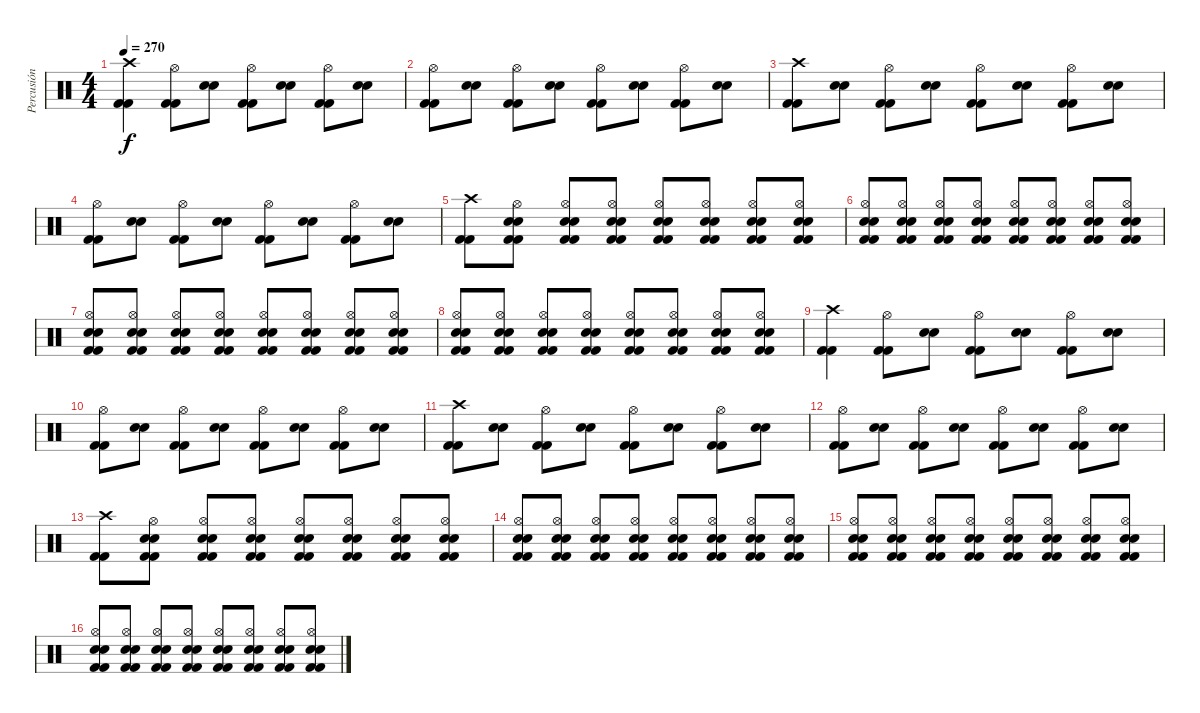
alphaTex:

\track ("Percusión" "Percusión") {instrument percussion}
\staff {score}
\articulation defaults
\ts (4 4)
\tempo 270
\clef neutral
\ks c
("Kick (hit) 2" "Kick (hit) 2" "Crash high (hit)").4{dy f} ("Kick (hit) 2" "Kick (hit) 2" "Hi-Hat (open)").8 ("Electric Snare (hit)" "Electric Snare (hit)").8 ("Kick (hit) 2" "Kick (hit) 2" "Hi-Hat (open)").8 ("Electric Snare (hit)" "Electric Snare (hit)").8 ("Kick (hit) 2" "Kick (hit) 2" "Hi-Hat (open)").8 ("Electric Snare (hit)" "Electric Snare (hit)").8 |
("Kick (hit) 2" "Kick (hit) 2" "Hi-Hat (open)").8 ("Electric Snare (hit)" "Electric Snare (hit)").8 ("Kick (hit) 2" "Kick (hit) 2" "Hi-Hat (open)").8 ("Electric Snare (hit)" "Electric Snare (hit)").8 ("Kick (hit) 2" "Kick (hit) 2" "Hi-Hat (open)").8 ("Electric Snare (hit)" "Electric Snare (hit)").8 ("Kick (hit) 2" "Kick (hit) 2" "Hi-Hat (open)").8 ("Electric Snare (hit)" "Electric Snare (hit)").8 |
("Kick (hit) 2" "Kick (hit) 2" "Crash high (hit)").8 ("Electric Snare (hit)" "Electric Snare (hit)").8 ("Kick (hit) 2" "Kick (hit) 2" "Hi-Hat (open)").8 ("Electric Snare (hit)" "Electric Snare (hit)").8 ("Kick (hit) 2" "Kick (hit) 2" "Hi-Hat (open)").8 ("Electric Snare (hit)" "Electric Snare (hit)").8 ("Kick (hit) 2" "Kick (hit) 2" "Hi-Hat (open)").8 ("Electric Snare (hit)" "Electric Snare (hit)").8 |
("Kick (hit) 2" "Kick (hit) 2" "Hi-Hat (open)").8 ("Electric Snare (hit)" "Electric Snare (hit)").8 ("Kick (hit) 2" "Kick (hit) 2" "Hi-Hat (open)").8 ("Electric Snare (hit)" "Electric Snare (hit)").8 ("Kick (hit) 2" "Kick (hit) 2" "Hi-Hat (open)").8 ("Electric Snare (hit)" "Electric Snare (hit)").8 ("Kick (hit) 2" "Kick (hit) 2" "Hi-Hat (open)").8 ("Electric Snare (hit)" "Electric Snare (hit)").8 |
("Kick (hit) 2" "Kick (hit) 2" "Crash high (hit)").8 ("Kick (hit) 2" "Kick (hit) 2" "Electric Snare (hit)" "Electric Snare (hit)" "Hi-Hat (open)").8 ("Kick (hit) 2" "Kick (hit) 2" "Electric Snare (hit)" "Electric Snare (hit)" "Hi-Hat (open)").8 ("Kick (hit) 2" "Kick (hit) 2" "Electric Snare (hit)" "Electric Snare (hit)" "Hi-Hat (open)").8 ("Kick (hit) 2" "Kick (hit) 2" "Electric Snare (hit)" "Electric Snare (hit)" "Hi-Hat (open)").8 ("Kick (hit) 2" "Kick (hit) 2" "Electric Snare (hit)" "Electric Snare (hit)" "Hi-Hat (open)").8 ("Kick (hit) 2" "Kick (hit) 2" "Electric Snare (hit)" "Electric Snare (hit)" "Hi-Hat (open)").8 ("Kick (hit) 2" "Kick (hit) 2" "Electric Snare (hit)" "Electric Snare (hit)" "Hi-Hat (open)").8 |
("Kick (hit) 2" "Kick (hit) 2" "Electric Snare (hit)" "Electric Snare (hit)" "Hi-Hat (open)").8 ("Kick (hit) 2" "Kick (hit) 2" "Electric Snare (hit)" "Electric Snare (hit)" "Hi-Hat (open)").8 ("Kick (hit) 2" "Kick (hit) 2" "Electric Snare (hit)" "Electric Snare (hit)" "Hi-Hat (open)").8 ("Kick (hit) 2" "Kick (hit) 2" "Electric Snare (hit)" "Electric Snare (hit)" "Hi-Hat (open)").8 ("Kick (hit) 2" "Kick (hit) 2" "Electric Snare (hit)" "Electric Snare (hit)" "Hi-Hat (open)").8 ("Kick (hit) 2" "Kick (hit) 2" "Electric Snare (hit)" "Electric Snare (hit)" "Hi-Hat (open)").8 ("Kick (hit) 2" "Kick (hit) 2" "Electric Snare (hit)" "Electric Snare (hit)" "Hi-Hat (open)").8 ("Kick (hit) 2" "Kick (hit) 2" "Electric Snare (hit)" "Electric Snare (hit)" "Hi-Hat (open)").8 |
("Kick (hit) 2" "Kick (hit) 2" "Electric Snare (hit)" "Electric Snare (hit)" "Hi-Hat (open)").8 ("Kick (hit) 2" "Kick (hit) 2" "Electric Snare (hit)" "Electric Snare (hit)" "Hi-Hat (open)").8 ("Kick (hit) 2" "Kick (hit) 2" "Electric Snare (hit)" "Electric Snare (hit)" "Hi-Hat (open)").8 ("Kick (hit) 2" "Kick (hit) 2" "Electric Snare (hit)" "Electric Snare (hit)" "Hi-Hat (open)").8 ("Kick (hit) 2" "Kick (hit) 2" "Electric Snare (hit)" "Electric Snare (hit)" "Hi-Hat (open)").8 ("Kick (hit) 2" "Kick (hit) 2" "Electric Snare (hit)" "Electric Snare (hit)" "Hi-Hat (open)").8 ("Kick (hit) 2" "Kick (hit) 2" "Electric Snare (hit)" "Electric Snare (hit)" "Hi-Hat (open)").8 ("Kick (hit) 2" "Kick (hit) 2" "Electric Snare (hit)" "Electric Snare (hit)" "Hi-Hat (open)").8 |
("Kick (hit) 2" "Kick (hit) 2" "Electric Snare (hit)" "Electric Snare (hit)" "Hi-Hat (open)").8 ("Kick (hit) 2" "Kick (hit) 2" "Electric Snare (hit)" "Electric Snare (hit)" "Hi-Hat (open)").8 ("Kick (hit) 2" "Kick (hit) 2" "Electric Snare (hit)" "Electric Snare (hit)" "Hi-Hat (open)").8 ("Kick (hit) 2" "Kick (hit) 2" "Electric Snare (hit)" "Electric Snare (hit)" "Hi-Hat (open)").8 ("Kick (hit) 2" "Kick (hit) 2" "Electric Snare (hit)" "Electric Snare (hit)" "Hi-Hat (open)").8 ("Kick (hit) 2" "Kick (hit) 2" "Electric Snare (hit)" "Electric Snare (hit)" "Hi-Hat (open)").8 ("Kick (hit) 2" "Kick (hit) 2" "Electric Snare (hit)" "Electric Snare (hit)" "Hi-Hat (open)").8 ("Kick (hit) 2" "Kick (hit) 2" "Electric Snare (hit)" "Electric Snare (hit)" "Hi-Hat (open)").8 |
("Kick (hit) 2" "Kick (hit) 2" "Crash high (hit)").4 ("Kick (hit) 2" "Kick (hit) 2" "Hi-Hat (open)").8 ("Electric Snare (hit)" "Electric Snare (hit)").8 ("Kick (hit) 2" "Kick (hit) 2" "Hi-Hat (open)").8 ("Electric Snare (hit)" "Electric Snare (hit)").8 ("Kick (hit) 2" "Kick (hit) 2" "Hi-Hat (open)").8 ("Electric Snare (hit)" "Electric Snare (hit)").8 |
("Kick (hit) 2" "Kick (hit) 2" "Hi-Hat (open)").8 ("Electric Snare (hit)" "Electric Snare (hit)").8 ("Kick (hit) 2" "Kick (hit) 2" "Hi-Hat (open)").8 ("Electric Snare (hit)" "Electric Snare (hit)").8 ("Kick (hit) 2" "Kick (hit) 2" "Hi-Hat (open)").8 ("Electric Snare (hit)" "Electric Snare (hit)").8 ("Kick (hit) 2" "Kick (hit) 2" "Hi-Hat (open)").8 ("Electric Snare (hit)" "Electric Snare (hit)").8 |
("Kick (hit) 2" "Kick (hit) 2" "Crash high (hit)").8 ("Electric Snare (hit)" "Electric Snare (hit)").8 ("Kick (hit) 2" "Kick (hit) 2" "Hi-Hat (open)").8 ("Electric Snare (hit)" "Electric Snare (hit)").8 ("Kick (hit) 2" "Kick (hit) 2" "Hi-Hat (open)").8 ("Electric Snare (hit)" "Electric Snare (hit)").8 ("Kick (hit) 2" "Kick (hit) 2" "Hi-Hat (open)").8 ("Electric Snare (hit)" "Electric Snare (hit)").8 |
("Kick (hit) 2" "Kick (hit) 2" "Hi-Hat (open)").8 ("Electric Snare (hit)" "Electric Snare (hit)").8 ("Kick (hit) 2" "Kick (hit) 2" "Hi-Hat (open)").8 ("Electric Snare (hit)" "Electric Snare (hit)").8 ("Kick (hit) 2" "Kick (hit) 2" "Hi-Hat (open)").8 ("Electric Snare (hit)" "Electric Snare (hit)").8 ("Kick (hit) 2" "Kick (hit) 2" "Hi-Hat (open)").8 ("Electric Snare (hit)" "Electric Snare (hit)").8 |
("Kick (hit) 2" "Kick (hit) 2" "Crash high (hit)").8 ("Kick (hit) 2" "Kick (hit) 2" "Electric Snare (hit)" "Electric Snare (hit)" "Hi-Hat (open)").8 ("Kick (hit) 2" "Kick (hit) 2" "Electric Snare (hit)" "Electric Snare (hit)" "Hi-Hat (open)").8 ("Kick (hit) 2" "Kick (hit) 2" "Electric Snare (hit)" "Electric Snare (hit)" "Hi-Hat (open)").8 ("Kick (hit) 2" "Kick (hit) 2" "Electric Snare (hit)" "Electric Snare (hit)" "Hi-Hat (open)").8 ("Kick (hit) 2" "Kick (hit) 2" "Electric Snare (hit)" "Electric Snare (hit)" "Hi-Hat (open)").8 ("Kick (hit) 2" "Kick (hit) 2" "Electric Snare (hit)" "Electric Snare (hit)" "Hi-Hat (open)").8 ("Kick (hit) 2" "Kick (hit) 2" "Electric Snare (hit)" "Electric Snare (hit)" "Hi-Hat (open)").8 |
("Kick (hit) 2" "Kick (hit) 2" "Electric Snare (hit)" "Electric Snare (hit)" "Hi-Hat (open)").8 ("Kick (hit) 2" "Kick (hit) 2" "Electric Snare (hit)" "Electric Snare (hit)" "Hi-Hat (open)").8 ("Kick (hit) 2" "Kick (hit) 2" "Electric Snare (hit)" "Electric Snare (hit)" "Hi-Hat (open)").8 ("Kick (hit) 2" "Kick (hit) 2" "Electric Snare (hit)" "Electric Snare (hit)" "Hi-Hat (open)").8 ("Kick (hit) 2" "Kick (hit) 2" "Electric Snare (hit)" "Electric Snare (hit)" "Hi-Hat (open)").8 ("Kick (hit) 2" "Kick (hit) 2" "Electric Snare (hit)" "Electric Snare (hit)" "Hi-Hat (open)").8 ("Kick (hit) 2" "Kick (hit) 2" "Electric Snare (hit)" "Electric Snare (hit)" "Hi-Hat (open)").8 ("Kick (hit) 2" "Kick (hit) 2" "Electric Snare (hit)" "Electric Snare (hit)" "Hi-Hat (open)").8 |
("Kick (hit) 2" "Kick (hit) 2" "Electric Snare (hit)" "Electric Snare (hit)" "Hi-Hat (open)").8 ("Kick (hit) 2" "Kick (hit) 2" "Electric Snare (hit)" "Electric Snare (hit)" "Hi-Hat (open)").8 ("Kick (hit) 2" "Kick (hit) 2" "Electric Snare (hit)" "Electric Snare (hit)" "Hi-Hat (open)").8 ("Kick (hit) 2" "Kick (hit) 2" "Electric Snare (hit)" "Electric Snare (hit)" "Hi-Hat (open)").8 ("Kick (hit) 2" "Kick (hit) 2" "Electric Snare (hit)" "Electric Snare (hit)" "Hi-Hat (open)").8 ("Kick (hit) 2" "Kick (hit) 2" "Electric Snare (hit)" "Electric Snare (hit)" "Hi-Hat (open)").8 ("Kick (hit) 2" "Kick (hit) 2" "Electric Snare (hit)" "Electric Snare (hit)" "Hi-Hat (open)").8 ("Kick (hit) 2" "Kick (hit) 2" "Electric Snare (hit)" "Electric Snare (hit)" "Hi-Hat (open)").8 |
("Kick (hit) 2" "Kick (hit) 2" "Electric Snare (hit)" "Electric Snare (hit)" "Hi-Hat (open)").8 ("Kick (hit) 2" "Kick (hit) 2" "Electric Snare (hit)" "Electric Snare (hit)" "Hi-Hat (open)").8 ("Kick (hit) 2" "Kick (hit) 2" "Electric Snare (hit)" "Electric Snare (hit)" "Hi-Hat (open)").8 ("Kick (hit) 2" "Kick (hit) 2" "Electric Snare (hit)" "Electric Snare (hit)" "Hi-Hat (open)").8 ("Kick (hit) 2" "Kick (hit) 2" "Electric Snare (hit)" "Electric Snare (hit)" "Hi-Hat (open)").8 ("Kick (hit) 2" "Kick (hit) 2" "Electric Snare (hit)" "Electric Snare (hit)" "Hi-Hat (open)").8 ("Kick (hit) 2" "Kick (hit) 2" "Electric Snare (hit)" "Electric Snare (hit)" "Hi-Hat (open)").8 ("Kick (hit) 2" "Kick (hit) 2" "Electric Snare (hit)" "Electric Snare (hit)" "Hi-Hat (open)").8
